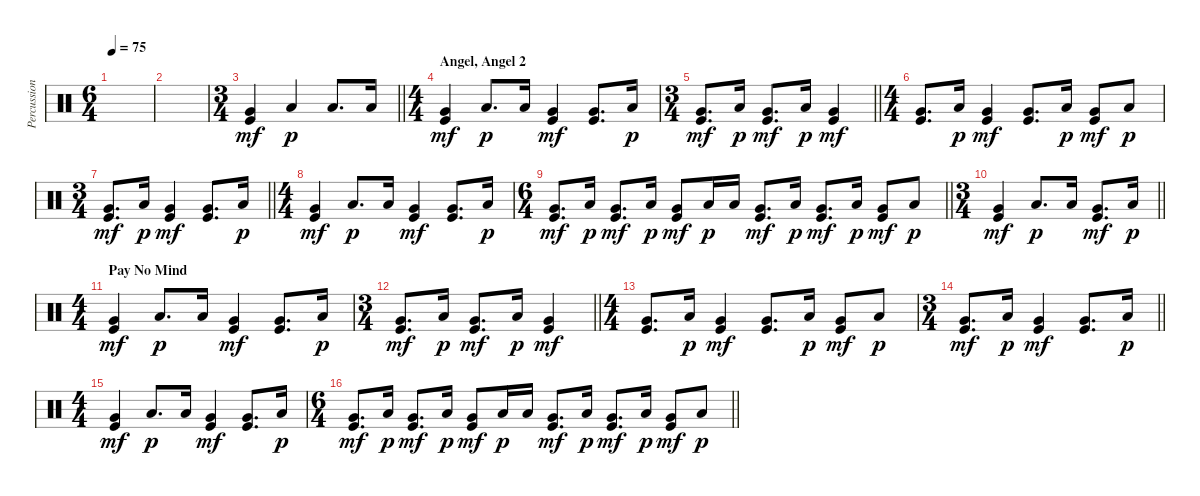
\track ("Percussion" "Percussion") {instrument percussion}
\staff {score}
\articulation defaults
\ts (6 4)
\tempo 75
\clef neutral
\ks c
|
|
\ts (3 4)
\barLineRight lightlight
("Very Low Tom (hit)" "Kick (hit)").4{dy mf} "Low Tom (hit)".4{dy p} "Low Tom (hit)".8{d} "Low Tom (hit)".16 |
\ts (4 4)
\section ("" "Angel, Angel 2")
("Very Low Tom (hit)" "Kick (hit)").4{dy mf} "Low Tom (hit)".8{d dy p} "Low Tom (hit)".16 ("Very Low Tom (hit)" "Kick (hit)").4{dy mf} ("Very Low Tom (hit)" "Kick (hit)").8{d} "Low Tom (hit)".16{dy p} |
\ts (3 4)
\barLineRight lightlight
("Very Low Tom (hit)" "Kick (hit)").8{d dy mf} "Low Tom (hit)".16{dy p} ("Very Low Tom (hit)" "Kick (hit)").8{d dy mf} "Low Tom (hit)".16{dy p} ("Very Low Tom (hit)" "Kick (hit)").4{dy mf} |
\ts (4 4)
("Very Low Tom (hit)" "Kick (hit)").8{d} "Low Tom (hit)".16{dy p} ("Very Low Tom (hit)" "Kick (hit)").4{dy mf} ("Very Low Tom (hit)" "Kick (hit)").8{d} "Low Tom (hit)".16{dy p} ("Very Low Tom (hit)" "Kick (hit)").8{dy mf} "Low Tom (hit)".8{dy p} |
\ts (3 4)
\barLineRight lightlight
("Very Low Tom (hit)" "Kick (hit)").8{d dy mf} "Low Tom (hit)".16{dy p} ("Very Low Tom (hit)" "Kick (hit)").4{dy mf} ("Very Low Tom (hit)" "Kick (hit)").8{d} "Low Tom (hit)".16{dy p} |
\ts (4 4)
("Very Low Tom (hit)" "Kick (hit)").4{dy mf} "Low Tom (hit)".8{d dy p} "Low Tom (hit)".16 ("Very Low Tom (hit)" "Kick (hit)").4{dy mf} ("Very Low Tom (hit)" "Kick (hit)").8{d} "Low Tom (hit)".16{dy p} |
\ts (6 4)
\barLineRight lightlight
("Very Low Tom (hit)" "Kick (hit)").8{d dy mf} "Low Tom (hit)".16{dy p} ("Very Low Tom (hit)" "Kick (hit)").8{d dy mf} "Low Tom (hit)".16{dy p} ("Very Low Tom (hit)" "Kick (hit)").8{dy mf} "Low Tom (hit)".16{dy p} "Low Tom (hit)".16 ("Very Low Tom (hit)" "Kick (hit)").8{d dy mf} "Low Tom (hit)".16{dy p} ("Very Low Tom (hit)" "Kick (hit)").8{d dy mf} "Low Tom (hit)".16{dy p} ("Very Low Tom (hit)" "Kick (hit)").8{dy mf} "Low Tom (hit)".8{dy p} |
\ts (3 4)
\barLineRight lightlight
("Very Low Tom (hit)" "Kick (hit)").4{dy mf} "Low Tom (hit)".8{d dy p} "Low Tom (hit)".16 ("Very Low Tom (hit)" "Kick (hit)").8{d dy mf} "Low Tom (hit)".16{dy p} |
\ts (4 4)
\section ("" "Pay No Mind")
("Very Low Tom (hit)" "Kick (hit)").4{dy mf} "Low Tom (hit)".8{d dy p} "Low Tom (hit)".16 ("Very Low Tom (hit)" "Kick (hit)").4{dy mf} ("Very Low Tom (hit)" "Kick (hit)").8{d} "Low Tom (hit)".16{dy p} |
\ts (3 4)
\barLineRight lightlight
("Very Low Tom (hit)" "Kick (hit)").8{d dy mf} "Low Tom (hit)".16{dy p} ("Very Low Tom (hit)" "Kick (hit)").8{d dy mf} "Low Tom (hit)".16{dy p} ("Very Low Tom (hit)" "Kick (hit)").4{dy mf} |
\ts (4 4)
("Very Low Tom (hit)" "Kick (hit)").8{d} "Low Tom (hit)".16{dy p} ("Very Low Tom (hit)" "Kick (hit)").4{dy mf} ("Very Low Tom (hit)" "Kick (hit)").8{d} "Low Tom (hit)".16{dy p} ("Very Low Tom (hit)" "Kick (hit)").8{dy mf} "Low Tom (hit)".8{dy p} |
\ts (3 4)
\barLineRight lightlight
("Very Low Tom (hit)" "Kick (hit)").8{d dy mf} "Low Tom (hit)".16{dy p} ("Very Low Tom (hit)" "Kick (hit)").4{dy mf} ("Very Low Tom (hit)" "Kick (hit)").8{d} "Low Tom (hit)".16{dy p} |
\ts (4 4)
("Very Low Tom (hit)" "Kick (hit)").4{dy mf} "Low Tom (hit)".8{d dy p} "Low Tom (hit)".16 ("Very Low Tom (hit)" "Kick (hit)").4{dy mf} ("Very Low Tom (hit)" "Kick (hit)").8{d} "Low Tom (hit)".16{dy p} |
\ts (6 4)
\barLineRight lightlight
("Very Low Tom (hit)" "Kick (hit)").8{d dy mf} "Low Tom (hit)".16{dy p} ("Very Low Tom (hit)" "Kick (hit)").8{d dy mf} "Low Tom (hit)".16{dy p} ("Very Low Tom (hit)" "Kick (hit)").8{dy mf} "Low Tom (hit)".16{dy p} "Low Tom (hit)".16 ("Very Low Tom (hit)" "Kick (hit)").8{d dy mf} "Low Tom (hit)".16{dy p} ("Very Low Tom (hit)" "Kick (hit)").8{d dy mf} "Low Tom (hit)".16{dy p} ("Very Low Tom (hit)" "Kick (hit)").8{dy mf} "Low Tom (hit)".8{dy p}
